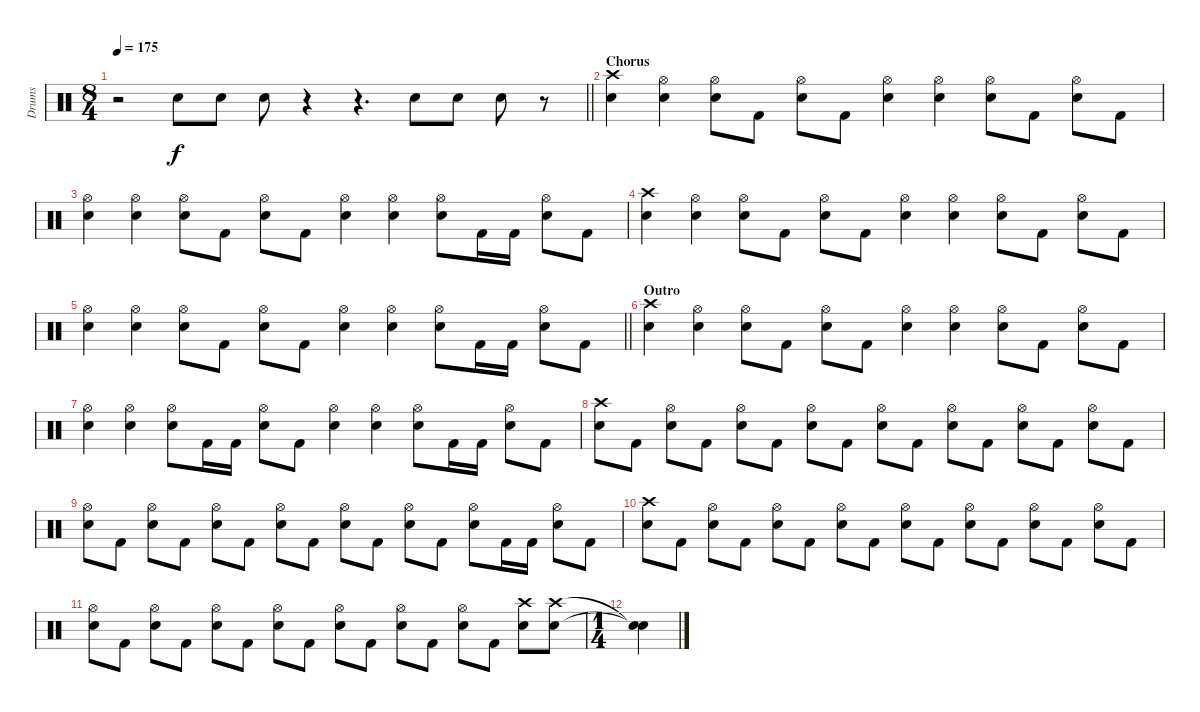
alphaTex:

\track ("Drums" "Drums") {instrument percussion}
\staff {score}
\articulation defaults
\ts (8 4)
\tempo 175
\clef neutral
\barLineRight lightlight
\ks c
r.2{dy f} "Snare (hit) 2".8 "Snare (hit) 2".8 "Snare (hit) 2".8 r.4 r.4{d} "Snare (hit) 2".8 "Snare (hit) 2".8 "Snare (hit) 2".8 r.8 |
\section ("" "Chorus")
("Crash high (hit)" "Snare (hit) 2").4 ("Hi-Hat (open)" "Snare (hit) 2").4 ("Hi-Hat (open)" "Snare (hit) 2").8 "Kick (hit) 2".8 ("Hi-Hat (open)" "Snare (hit) 2").8 "Kick (hit) 2".8 ("Hi-Hat (open)" "Snare (hit) 2").4 ("Hi-Hat (open)" "Snare (hit) 2").4 ("Hi-Hat (open)" "Snare (hit) 2").8 "Kick (hit) 2".8 ("Hi-Hat (open)" "Snare (hit) 2").8 "Kick (hit) 2".8 |
("Hi-Hat (open)" "Snare (hit) 2").4 ("Hi-Hat (open)" "Snare (hit) 2").4 ("Hi-Hat (open)" "Snare (hit) 2").8 "Kick (hit) 2".8 ("Hi-Hat (open)" "Snare (hit) 2").8 "Kick (hit) 2".8 ("Hi-Hat (open)" "Snare (hit) 2").4 ("Hi-Hat (open)" "Snare (hit) 2").4 ("Hi-Hat (open)" "Snare (hit) 2").8 "Kick (hit) 2".16 "Kick (hit) 2".16 ("Hi-Hat (open)" "Snare (hit) 2").8 "Kick (hit) 2".8 |
("Crash high (hit)" "Snare (hit) 2").4 ("Hi-Hat (open)" "Snare (hit) 2").4 ("Hi-Hat (open)" "Snare (hit) 2").8 "Kick (hit) 2".8 ("Hi-Hat (open)" "Snare (hit) 2").8 "Kick (hit) 2".8 ("Hi-Hat (open)" "Snare (hit) 2").4 ("Hi-Hat (open)" "Snare (hit) 2").4 ("Hi-Hat (open)" "Snare (hit) 2").8 "Kick (hit) 2".8 ("Hi-Hat (open)" "Snare (hit) 2").8 "Kick (hit) 2".8 |
\barLineRight lightlight
("Hi-Hat (open)" "Snare (hit) 2").4 ("Hi-Hat (open)" "Snare (hit) 2").4 ("Hi-Hat (open)" "Snare (hit) 2").8 "Kick (hit) 2".8 ("Hi-Hat (open)" "Snare (hit) 2").8 "Kick (hit) 2".8 ("Hi-Hat (open)" "Snare (hit) 2").4 ("Hi-Hat (open)" "Snare (hit) 2").4 ("Hi-Hat (open)" "Snare (hit) 2").8 "Kick (hit) 2".16 "Kick (hit) 2".16 ("Hi-Hat (open)" "Snare (hit) 2").8 "Kick (hit) 2".8 |
\section ("" "Outro")
("Crash high (hit)" "Snare (hit) 2").4 ("Hi-Hat (open)" "Snare (hit) 2").4 ("Hi-Hat (open)" "Snare (hit) 2").8 "Kick (hit) 2".8 ("Hi-Hat (open)" "Snare (hit) 2").8 "Kick (hit) 2".8 ("Hi-Hat (open)" "Snare (hit) 2").4 ("Hi-Hat (open)" "Snare (hit) 2").4 ("Hi-Hat (open)" "Snare (hit) 2").8 "Kick (hit) 2".8 ("Hi-Hat (open)" "Snare (hit) 2").8 "Kick (hit) 2".8 |
("Hi-Hat (open)" "Snare (hit) 2").4 ("Hi-Hat (open)" "Snare (hit) 2").4 ("Hi-Hat (open)" "Snare (hit) 2").8 "Kick (hit) 2".16 "Kick (hit) 2".16 ("Hi-Hat (open)" "Snare (hit) 2").8 "Kick (hit) 2".8 ("Hi-Hat (open)" "Snare (hit) 2").4 ("Hi-Hat (open)" "Snare (hit) 2").4 ("Hi-Hat (open)" "Snare (hit) 2").8 "Kick (hit) 2".16 "Kick (hit) 2".16 ("Hi-Hat (open)" "Snare (hit) 2").8 "Kick (hit) 2".8 |
("Crash high (hit)" "Snare (hit) 2").8 "Kick (hit) 2".8 ("Hi-Hat (open)" "Snare (hit) 2").8 "Kick (hit) 2".8 ("Hi-Hat (open)" "Snare (hit) 2").8 "Kick (hit) 2".8 ("Hi-Hat (open)" "Snare (hit) 2").8 "Kick (hit) 2".8 ("Hi-Hat (open)" "Snare (hit) 2").8 "Kick (hit) 2".8 ("Hi-Hat (open)" "Snare (hit) 2").8 "Kick (hit) 2".8 ("Hi-Hat (open)" "Snare (hit) 2").8 "Kick (hit) 2".8 ("Hi-Hat (open)" "Snare (hit) 2").8 "Kick (hit) 2".8 |
("Hi-Hat (open)" "Snare (hit) 2").8 "Kick (hit) 2".8 ("Hi-Hat (open)" "Snare (hit) 2").8 "Kick (hit) 2".8 ("Hi-Hat (open)" "Snare (hit) 2").8 "Kick (hit) 2".8 ("Hi-Hat (open)" "Snare (hit) 2").8 "Kick (hit) 2".8 ("Hi-Hat (open)" "Snare (hit) 2").8 "Kick (hit) 2".8 ("Hi-Hat (open)" "Snare (hit) 2").8 "Kick (hit) 2".8 ("Hi-Hat (open)" "Snare (hit) 2").8 "Kick (hit) 2".16 "Kick (hit) 2".16 ("Hi-Hat (open)" "Snare (hit) 2").8 "Kick (hit) 2".8 |
("Crash high (hit)" "Snare (hit) 2").8 "Kick (hit) 2".8 ("Hi-Hat (open)" "Snare (hit) 2").8 "Kick (hit) 2".8 ("Hi-Hat (open)" "Snare (hit) 2").8 "Kick (hit) 2".8 ("Hi-Hat (open)" "Snare (hit) 2").8 "Kick (hit) 2".8 ("Hi-Hat (open)" "Snare (hit) 2").8 "Kick (hit) 2".8 ("Hi-Hat (open)" "Snare (hit) 2").8 "Kick (hit) 2".8 ("Hi-Hat (open)" "Snare (hit) 2").8 "Kick (hit) 2".8 ("Hi-Hat (open)" "Snare (hit) 2").8 "Kick (hit) 2".8 |
("Hi-Hat (open)" "Snare (hit) 2").8 "Kick (hit) 2".8 ("Hi-Hat (open)" "Snare (hit) 2").8 "Kick (hit) 2".8 ("Hi-Hat (open)" "Snare (hit) 2").8 "Kick (hit) 2".8 ("Hi-Hat (open)" "Snare (hit) 2").8 "Kick (hit) 2".8 ("Hi-Hat (open)" "Snare (hit) 2").8 "Kick (hit) 2".8 ("Hi-Hat (open)" "Snare (hit) 2").8 "Kick (hit) 2".8 ("Hi-Hat (open)" "Snare (hit) 2").8 "Kick (hit) 2".8 ("Crash high (hit)" "Snare (hit) 2").8 ("Crash high (hit)" "Snare (hit) 2").8 |
\ts (1 4)
("Snare (hit)"{t} "Snare (hit)"{t}).4
